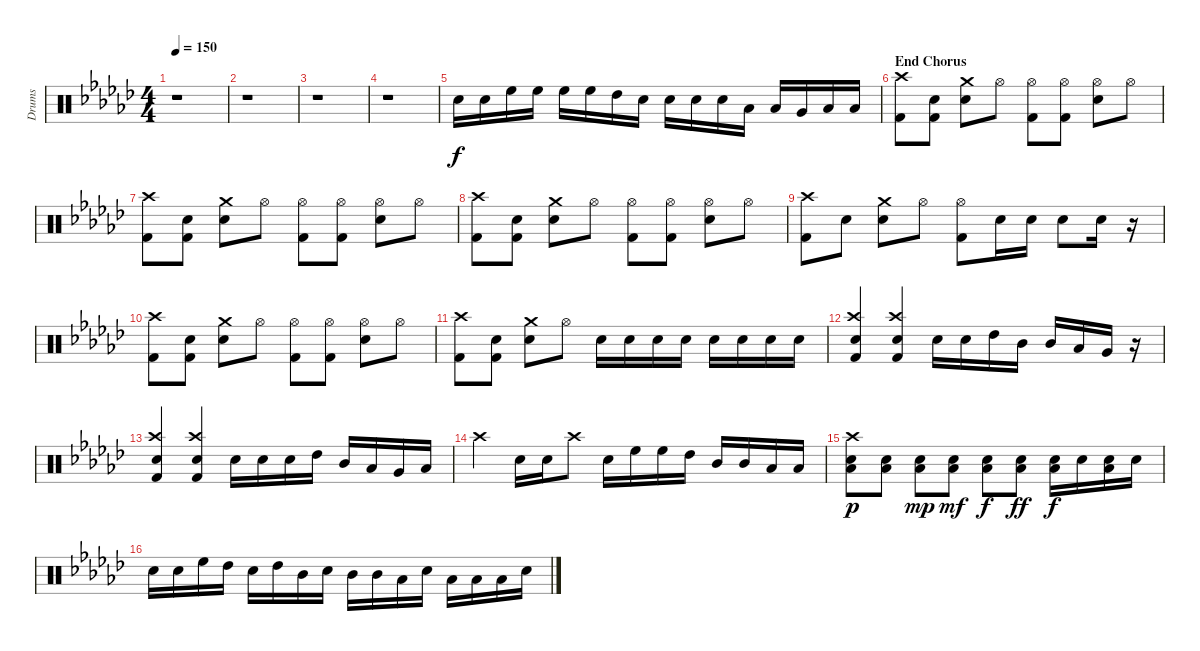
\track ("Drums" "Drums") {instrument percussion}
\staff {score}
\articulation defaults
\ts (4 4)
\tempo 150
\clef neutral
\ks gb
r.1{dy f} |
r.1 |
r.1 |
r.1 |
"Electric Snare (hit)".16 "Electric Snare (hit)".16 "High Floor Tom (hit)".16 "High Floor Tom (hit)".16 "High Floor Tom (hit)".16 "High Floor Tom (hit)".16 "High Tom (hit)".16 "Electric Snare (hit)".16 "Electric Snare (hit)".16 "Electric Snare (hit)".16 "Electric Snare (hit)".16 "Low Tom (hit)".16 "Low Tom (hit)".16 "Very Low Tom (hit)".16 "Low Floor Tom (hit)".16 "Low Floor Tom (hit)".16 |
\section ("" "End Chorus")
("Crash high (hit)" "Kick (hit) 2").8 ("Electric Snare (hit)" "Kick (hit) 2").8 ("Crash medium (hit)" "Electric Snare (hit)").8 "Hi-Hat (open)".8 ("Hi-Hat (open)" "Kick (hit) 2").8 ("Hi-Hat (open)" "Kick (hit) 2").8 ("Hi-Hat (open)" "Electric Snare (hit)").8 "Hi-Hat (open)".8 |
("Crash high (hit)" "Kick (hit) 2").8 ("Electric Snare (hit)" "Kick (hit) 2").8 ("Crash medium (hit)" "Electric Snare (hit)").8 "Hi-Hat (open)".8 ("Hi-Hat (open)" "Kick (hit) 2").8 ("Hi-Hat (open)" "Kick (hit) 2").8 ("Hi-Hat (open)" "Electric Snare (hit)").8 "Hi-Hat (open)".8 |
("Crash high (hit)" "Kick (hit) 2").8 ("Electric Snare (hit)" "Kick (hit) 2").8 ("Crash medium (hit)" "Electric Snare (hit)").8 "Hi-Hat (open)".8 ("Hi-Hat (open)" "Kick (hit) 2").8 ("Hi-Hat (open)" "Kick (hit) 2").8 ("Hi-Hat (open)" "Electric Snare (hit)").8 "Hi-Hat (open)".8 |
("Crash high (hit)" "Kick (hit) 2").8 "Electric Snare (hit)".8 ("Crash medium (hit)" "Electric Snare (hit)").8 "Hi-Hat (open)".8 ("Hi-Hat (open)" "Kick (hit) 2").8 "Electric Snare (hit)".16 "Electric Snare (hit)".16 "Electric Snare (hit)".8 "Electric Snare (hit)".16 r.16 |
("Crash high (hit)" "Kick (hit) 2").8 ("Electric Snare (hit)" "Kick (hit) 2").8 ("Crash medium (hit)" "Electric Snare (hit)").8 "Hi-Hat (open)".8 ("Hi-Hat (open)" "Kick (hit) 2").8 ("Hi-Hat (open)" "Kick (hit) 2").8 ("Hi-Hat (open)" "Electric Snare (hit)").8 "Hi-Hat (open)".8 |
("Crash high (hit)" "Kick (hit) 2").8 ("Electric Snare (hit)" "Kick (hit) 2").8 ("Crash medium (hit)" "Electric Snare (hit)").8 "Hi-Hat (open)".8 "Electric Snare (hit)".16 "Electric Snare (hit)".16 "Electric Snare (hit)".16 "Electric Snare (hit)".16 "Electric Snare (hit)".16 "Electric Snare (hit)".16 "Electric Snare (hit)".16 "Electric Snare (hit)".16 |
("Crash high (hit)" "Kick (hit) 2" "Electric Snare (hit)").4 ("Crash high (hit)" "Kick (hit) 2" "Electric Snare (hit)").4 "Electric Snare (hit)".16 "Electric Snare (hit)".16 "High Tom (hit)".16 "Mid Tom (hit)".16 "Mid Tom (hit)".16 "Low Tom (hit)".16 "Very Low Tom (hit)".16 r.16 |
("Crash high (hit)" "Kick (hit) 2" "Electric Snare (hit)").4 ("Crash high (hit)" "Kick (hit) 2" "Electric Snare (hit)").4 "Electric Snare (hit)".16 "Electric Snare (hit)".16 "Electric Snare (hit)".16 "High Tom (hit)".16 "Mid Tom (hit)".16 "Low Tom (hit)".16 "Very Low Tom (hit)".16 "Low Floor Tom (hit)".16 |
"Crash high (hit)".4 "Electric Snare (hit)".16 "Electric Snare (hit)".16 "Crash high (hit)".8 "Electric Snare (hit)".16 "High Floor Tom (hit)".16 "High Floor Tom (hit)".16 "High Tom (hit)".16 "Mid Tom (hit)".16 "Mid Tom (hit)".16 "Low Tom (hit)".16 "Low Tom (hit)".16 |
("Crash high (hit)" "Low Tom (hit)" "Electric Snare (hit)").8{dy p} ("Low Tom (hit)" "Electric Snare (hit)").8 ("Low Tom (hit)" "Electric Snare (hit)").8{dy mp} ("Low Tom (hit)" "Electric Snare (hit)").8{dy mf} ("Low Tom (hit)" "Electric Snare (hit)").8{dy f} ("Low Tom (hit)" "Electric Snare (hit)").8{dy ff} ("Electric Snare (hit)" "Low Tom (hit)").16{dy f} "Electric Snare (hit)".16 ("Electric Snare (hit)" "Low Tom (hit)").16 "Electric Snare (hit)".16 |
"Electric Snare (hit)".16 "Electric Snare (hit)".16 "High Floor Tom (hit)".16 "High Tom (hit)".16 "Electric Snare (hit)".16 "High Tom (hit)".16 "Mid Tom (hit)".16 "Electric Snare (hit)".16 "Mid Tom (hit)".16 "Mid Tom (hit)".16 "Low Tom (hit)".16 "Electric Snare (hit)".16 "Low Floor Tom (hit)".16 "Low Floor Tom (hit)".16 "Low Floor Tom (hit)".16 "Electric Snare (hit)".16
